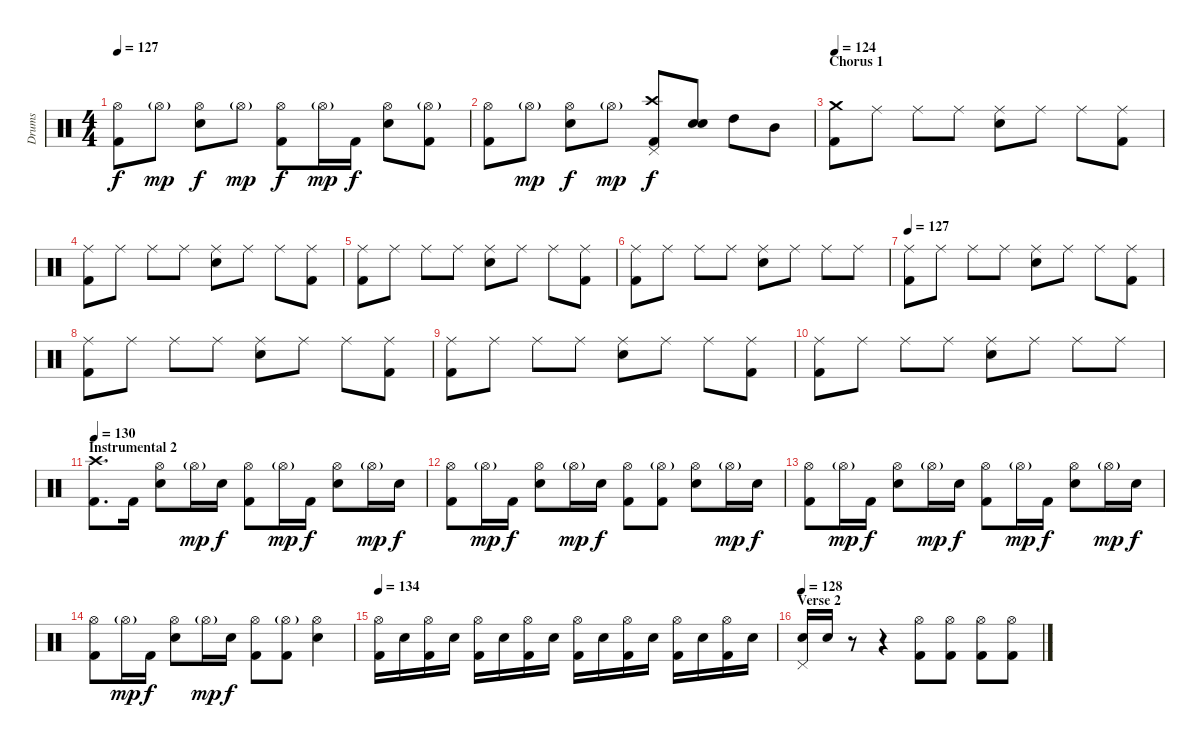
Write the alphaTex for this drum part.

\track ("Drums" "Drums") {instrument percussion}
\staff {score}
\articulation defaults
\ts (4 4)
\tempo 127
\clef neutral
\ks c
("Hi-Hat (open)" "Kick (hit) 2").8{dy f} "Hi-Hat (open)"{g}.8{dy mp} ("Hi-Hat (open)" "Snare (hit) 2").8{dy f} "Hi-Hat (open)"{g}.8{dy mp} ("Hi-Hat (open)" "Kick (hit) 2").8{dy f} "Hi-Hat (open)"{g}.16{dy mp} "Kick (hit) 2".16{dy f} ("Hi-Hat (open)" "Snare (hit) 2").8 ("Hi-Hat (open)"{g} "Kick (hit) 2").8 |
("Hi-Hat (open)" "Kick (hit) 2").8 "Hi-Hat (open)"{g}.8{dy mp} ("Hi-Hat (open)" "Snare (hit) 2").8{dy f} "Hi-Hat (open)"{g}.8{dy mp} ("Crash high (hit)" "Kick (hit) 2" "Pedal Hi-Hat (hit)").8{dy f} ("Snare (hit) 2" "Snare (hit) 2").8{bu 480} "High Tom (hit)".8 "Mid Tom (hit)".8 |
\section ("" "Chorus 1")
\tempo 124
("Crash medium (hit)" "Kick (hit) 2").8 "Ride (middle)".8 "Ride (middle)".8 "Ride (middle)".8 ("Ride (middle)" "Snare (hit) 2").8 "Ride (middle)".8 "Ride (middle)".8 ("Ride (middle)" "Kick (hit) 2").8 |
("Ride (middle)" "Kick (hit) 2").8 "Ride (middle)".8 "Ride (middle)".8 "Ride (middle)".8 ("Ride (middle)" "Snare (hit) 2").8 "Ride (middle)".8 "Ride (middle)".8 ("Ride (middle)" "Kick (hit) 2").8 |
("Ride (middle)" "Kick (hit) 2").8 "Ride (middle)".8 "Ride (middle)".8 "Ride (middle)".8 ("Ride (middle)" "Snare (hit) 2").8 "Ride (middle)".8 "Ride (middle)".8 ("Ride (middle)" "Kick (hit) 2").8 |
("Ride (middle)" "Kick (hit) 2").8 "Ride (middle)".8 "Ride (middle)".8 "Ride (middle)".8 ("Ride (middle)" "Snare (hit) 2").8 "Ride (middle)".8 "Ride (middle)".8 "Ride (middle)".8 |
\tempo 127
("Ride (middle)" "Kick (hit) 2").8 "Ride (middle)".8 "Ride (middle)".8 "Ride (middle)".8 ("Ride (middle)" "Snare (hit) 2").8 "Ride (middle)".8 "Ride (middle)".8 ("Ride (middle)" "Kick (hit) 2").8 |
("Ride (middle)" "Kick (hit) 2").8 "Ride (middle)".8 "Ride (middle)".8 "Ride (middle)".8 ("Ride (middle)" "Snare (hit) 2").8 "Ride (middle)".8 "Ride (middle)".8 ("Ride (middle)" "Kick (hit) 2").8 |
("Ride (middle)" "Kick (hit) 2").8 "Ride (middle)".8 "Ride (middle)".8 "Ride (middle)".8 ("Ride (middle)" "Snare (hit) 2").8 "Ride (middle)".8 "Ride (middle)".8 ("Ride (middle)" "Kick (hit) 2").8 |
("Ride (middle)" "Kick (hit) 2").8 "Ride (middle)".8 "Ride (middle)".8 "Ride (middle)".8 ("Ride (middle)" "Snare (hit) 2").8 "Ride (middle)".8 "Ride (middle)".8 "Ride (middle)".8 |
\section ("" "Instrumental 2")
\tempo 130
("Crash high (hit)" "Kick (hit) 2").8{d} "Kick (hit) 2".16 ("Hi-Hat (open)" "Snare (hit) 2").8 "Hi-Hat (open)"{g}.16{dy mp} "Snare (hit) 2".16{dy f} ("Hi-Hat (open)" "Kick (hit) 2").8 "Hi-Hat (open)"{g}.16{dy mp} "Kick (hit) 2".16{dy f} ("Hi-Hat (open)" "Snare (hit) 2").8 "Hi-Hat (open)"{g}.16{dy mp} "Snare (hit) 2".16{dy f} |
("Hi-Hat (open)" "Kick (hit) 2").8 "Hi-Hat (open)"{g}.16{dy mp} "Kick (hit) 2".16{dy f} ("Hi-Hat (open)" "Snare (hit) 2").8 "Hi-Hat (open)"{g}.16{dy mp} "Snare (hit) 2".16{dy f} ("Hi-Hat (open)" "Kick (hit) 2").8 ("Hi-Hat (open)"{g} "Kick (hit) 2").8 ("Hi-Hat (open)" "Snare (hit) 2").8 "Hi-Hat (open)"{g}.16{dy mp} "Snare (hit) 2".16{dy f} |
("Hi-Hat (open)" "Kick (hit) 2").8 "Hi-Hat (open)"{g}.16{dy mp} "Kick (hit) 2".16{dy f} ("Hi-Hat (open)" "Snare (hit) 2").8 "Hi-Hat (open)"{g}.16{dy mp} "Snare (hit) 2".16{dy f} ("Hi-Hat (open)" "Kick (hit) 2").8 "Hi-Hat (open)"{g}.16{dy mp} "Kick (hit) 2".16{dy f} ("Hi-Hat (open)" "Snare (hit) 2").8 "Hi-Hat (open)"{g}.16{dy mp} "Snare (hit) 2".16{dy f} |
("Hi-Hat (open)" "Kick (hit) 2").8 "Hi-Hat (open)"{g}.16{dy mp} "Kick (hit) 2".16{dy f} ("Hi-Hat (open)" "Snare (hit) 2").8 "Hi-Hat (open)"{g}.16{dy mp} "Snare (hit) 2".16{dy f} ("Hi-Hat (open)" "Kick (hit) 2").8 ("Hi-Hat (open)"{g} "Kick (hit) 2").8 ("Hi-Hat (open)" "Snare (hit) 2").4 |
\tempo 134
("Hi-Hat (open)" "Kick (hit) 2").16 "Snare (hit) 2".16 ("Hi-Hat (open)" "Kick (hit) 2").16 "Snare (hit) 2".16 ("Hi-Hat (open)" "Kick (hit) 2").16 "Snare (hit) 2".16 ("Hi-Hat (open)" "Kick (hit) 2").16 "Snare (hit) 2".16 ("Hi-Hat (open)" "Kick (hit) 2").16 "Snare (hit) 2".16 ("Hi-Hat (open)" "Kick (hit) 2").16 "Snare (hit) 2".16 ("Hi-Hat (open)" "Kick (hit) 2").16 "Snare (hit) 2".16 ("Hi-Hat (open)" "Kick (hit) 2").16 "Snare (hit) 2".16 |
\section ("" "Verse 2")
\tempo 128
("Snare (hit) 2" "Pedal Hi-Hat (hit)").16 "Snare (hit) 2".16 r.8 r.4 ("Hi-Hat (open)" "Kick (hit) 2").8 ("Hi-Hat (open)" "Kick (hit) 2").8 ("Hi-Hat (open)" "Kick (hit) 2").8 ("Hi-Hat (open)" "Kick (hit) 2").8
